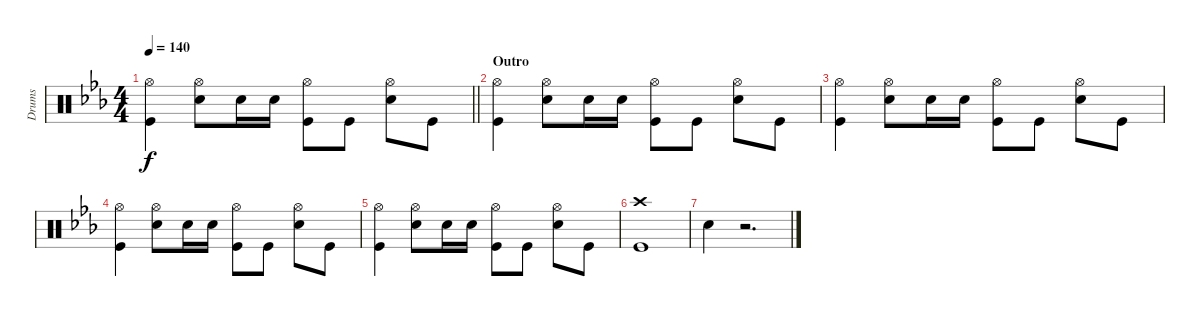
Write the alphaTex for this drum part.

\track ("Drums" "Drums") {instrument percussion}
\staff {score}
\articulation defaults
\ts (4 4)
\tempo 140
\clef neutral
\barLineRight lightlight
\ks eb
("Hi-Hat (open)" "Kick (hit)").4{dy f} ("Hi-Hat (open)" "Snare (hit) 2").8 "Snare (hit) 2".16 "Snare (hit) 2".16 ("Hi-Hat (open)" "Kick (hit)").8 "Kick (hit)".8 ("Hi-Hat (open)" "Snare (hit) 2").8 "Kick (hit)".8 |
\section ("" "Outro")
("Hi-Hat (open)" "Kick (hit)").4 ("Hi-Hat (open)" "Snare (hit) 2").8 "Snare (hit) 2".16 "Snare (hit) 2".16 ("Hi-Hat (open)" "Kick (hit)").8 "Kick (hit)".8 ("Hi-Hat (open)" "Snare (hit) 2").8 "Kick (hit)".8 |
("Hi-Hat (open)" "Kick (hit)").4 ("Hi-Hat (open)" "Snare (hit) 2").8 "Snare (hit) 2".16 "Snare (hit) 2".16 ("Hi-Hat (open)" "Kick (hit)").8 "Kick (hit)".8 ("Hi-Hat (open)" "Snare (hit) 2").8 "Kick (hit)".8 |
("Hi-Hat (open)" "Kick (hit)").4 ("Hi-Hat (open)" "Snare (hit) 2").8 "Snare (hit) 2".16 "Snare (hit) 2".16 ("Hi-Hat (open)" "Kick (hit)").8 "Kick (hit)".8 ("Hi-Hat (open)" "Snare (hit) 2").8 "Kick (hit)".8 |
("Hi-Hat (open)" "Kick (hit)").4 ("Hi-Hat (open)" "Snare (hit) 2").8 "Snare (hit) 2".16 "Snare (hit) 2".16 ("Hi-Hat (open)" "Kick (hit)").8 "Kick (hit)".8 ("Hi-Hat (open)" "Snare (hit) 2").8 "Kick (hit)".8 |
("Crash high (hit)" "Kick (hit)").1 |
"Snare (hit) 2".4 r.2{d}
